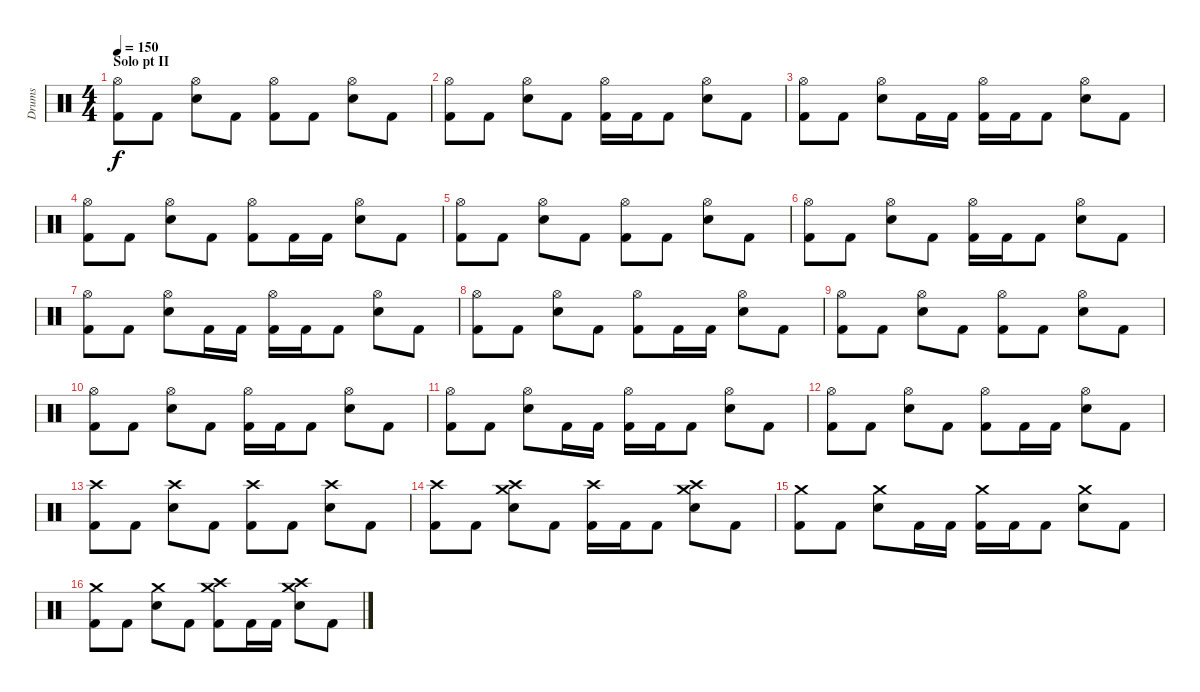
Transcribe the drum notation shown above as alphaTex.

\track ("Drums" "Drums") {instrument percussion}
\staff {score}
\articulation defaults
\ts (4 4)
\section ("" "Solo pt II")
\tempo 150
\clef neutral
\ks c
("Hi-Hat (open)" "Kick (hit) 2").8{dy f} "Kick (hit) 2".8 ("Hi-Hat (open)" "Electric Snare (hit)").8 "Kick (hit) 2".8 ("Hi-Hat (open)" "Kick (hit) 2").8 "Kick (hit) 2".8 ("Hi-Hat (open)" "Electric Snare (hit)").8 "Kick (hit) 2".8 |
("Hi-Hat (open)" "Kick (hit) 2").8 "Kick (hit) 2".8 ("Hi-Hat (open)" "Electric Snare (hit)").8 "Kick (hit) 2".8 ("Hi-Hat (open)" "Kick (hit) 2").16 "Kick (hit) 2".16 "Kick (hit) 2".8 ("Hi-Hat (open)" "Electric Snare (hit)").8 "Kick (hit) 2".8 |
("Hi-Hat (open)" "Kick (hit) 2").8 "Kick (hit) 2".8 ("Hi-Hat (open)" "Electric Snare (hit)").8 "Kick (hit) 2".16 "Kick (hit) 2".16 ("Hi-Hat (open)" "Kick (hit) 2").16 "Kick (hit) 2".16 "Kick (hit) 2".8 ("Hi-Hat (open)" "Electric Snare (hit)").8 "Kick (hit) 2".8 |
("Hi-Hat (open)" "Kick (hit) 2").8 "Kick (hit) 2".8 ("Hi-Hat (open)" "Electric Snare (hit)").8 "Kick (hit) 2".8 ("Hi-Hat (open)" "Kick (hit) 2").8 "Kick (hit) 2".16 "Kick (hit) 2".16 ("Hi-Hat (open)" "Electric Snare (hit)").8 "Kick (hit) 2".8 |
("Hi-Hat (open)" "Kick (hit) 2").8 "Kick (hit) 2".8 ("Hi-Hat (open)" "Electric Snare (hit)").8 "Kick (hit) 2".8 ("Hi-Hat (open)" "Kick (hit) 2").8 "Kick (hit) 2".8 ("Hi-Hat (open)" "Electric Snare (hit)").8 "Kick (hit) 2".8 |
("Hi-Hat (open)" "Kick (hit) 2").8 "Kick (hit) 2".8 ("Hi-Hat (open)" "Electric Snare (hit)").8 "Kick (hit) 2".8 ("Hi-Hat (open)" "Kick (hit) 2").16 "Kick (hit) 2".16 "Kick (hit) 2".8 ("Hi-Hat (open)" "Electric Snare (hit)").8 "Kick (hit) 2".8 |
("Hi-Hat (open)" "Kick (hit) 2").8 "Kick (hit) 2".8 ("Hi-Hat (open)" "Electric Snare (hit)").8 "Kick (hit) 2".16 "Kick (hit) 2".16 ("Hi-Hat (open)" "Kick (hit) 2").16 "Kick (hit) 2".16 "Kick (hit) 2".8 ("Hi-Hat (open)" "Electric Snare (hit)").8 "Kick (hit) 2".8 |
("Hi-Hat (open)" "Kick (hit) 2").8 "Kick (hit) 2".8 ("Hi-Hat (open)" "Electric Snare (hit)").8 "Kick (hit) 2".8 ("Hi-Hat (open)" "Kick (hit) 2").8 "Kick (hit) 2".16 "Kick (hit) 2".16 ("Hi-Hat (open)" "Electric Snare (hit)").8 "Kick (hit) 2".8 |
("Hi-Hat (open)" "Kick (hit) 2").8 "Kick (hit) 2".8 ("Hi-Hat (open)" "Electric Snare (hit)").8 "Kick (hit) 2".8 ("Hi-Hat (open)" "Kick (hit) 2").8 "Kick (hit) 2".8 ("Hi-Hat (open)" "Electric Snare (hit)").8 "Kick (hit) 2".8 |
("Hi-Hat (open)" "Kick (hit) 2").8 "Kick (hit) 2".8 ("Hi-Hat (open)" "Electric Snare (hit)").8 "Kick (hit) 2".8 ("Hi-Hat (open)" "Kick (hit) 2").16 "Kick (hit) 2".16 "Kick (hit) 2".8 ("Hi-Hat (open)" "Electric Snare (hit)").8 "Kick (hit) 2".8 |
("Hi-Hat (open)" "Kick (hit) 2").8 "Kick (hit) 2".8 ("Hi-Hat (open)" "Electric Snare (hit)").8 "Kick (hit) 2".16 "Kick (hit) 2".16 ("Hi-Hat (open)" "Kick (hit) 2").16 "Kick (hit) 2".16 "Kick (hit) 2".8 ("Hi-Hat (open)" "Electric Snare (hit)").8 "Kick (hit) 2".8 |
("Hi-Hat (open)" "Kick (hit) 2").8 "Kick (hit) 2".8 ("Hi-Hat (open)" "Electric Snare (hit)").8 "Kick (hit) 2".8 ("Hi-Hat (open)" "Kick (hit) 2").8 "Kick (hit) 2".16 "Kick (hit) 2".16 ("Hi-Hat (open)" "Electric Snare (hit)").8 "Kick (hit) 2".8 |
("Crash high (hit)" "Kick (hit) 2").8 "Kick (hit) 2".8 ("Crash high (hit)" "Electric Snare (hit)").8 "Kick (hit) 2".8 ("Crash high (hit)" "Kick (hit) 2").8 "Kick (hit) 2".8 ("Crash high (hit)" "Electric Snare (hit)").8 "Kick (hit) 2".8 |
("Crash high (hit)" "Kick (hit) 2").8 "Kick (hit) 2".8 ("Crash medium (hit)" "Crash high (hit)" "Electric Snare (hit)").8 "Kick (hit) 2".8 ("Crash high (hit)" "Kick (hit) 2").16 "Kick (hit) 2".16 "Kick (hit) 2".8 ("Crash medium (hit)" "Crash high (hit)" "Electric Snare (hit)").8 "Kick (hit) 2".8 |
("Crash medium (hit)" "Kick (hit) 2").8 "Kick (hit) 2".8 ("Crash medium (hit)" "Electric Snare (hit)").8 "Kick (hit) 2".16 "Kick (hit) 2".16 ("Crash medium (hit)" "Kick (hit) 2").16 "Kick (hit) 2".16 "Kick (hit) 2".8 ("Crash medium (hit)" "Electric Snare (hit)").8 "Kick (hit) 2".8 |
("Crash medium (hit)" "Kick (hit) 2").8 "Kick (hit) 2".8 ("Crash medium (hit)" "Electric Snare (hit)").8 "Kick (hit) 2".8 ("Crash medium (hit)" "Crash high (hit)" "Kick (hit) 2").8 "Kick (hit) 2".16 "Kick (hit) 2".16 ("Crash medium (hit)" "Crash high (hit)" "Electric Snare (hit)").8 "Kick (hit) 2".8
